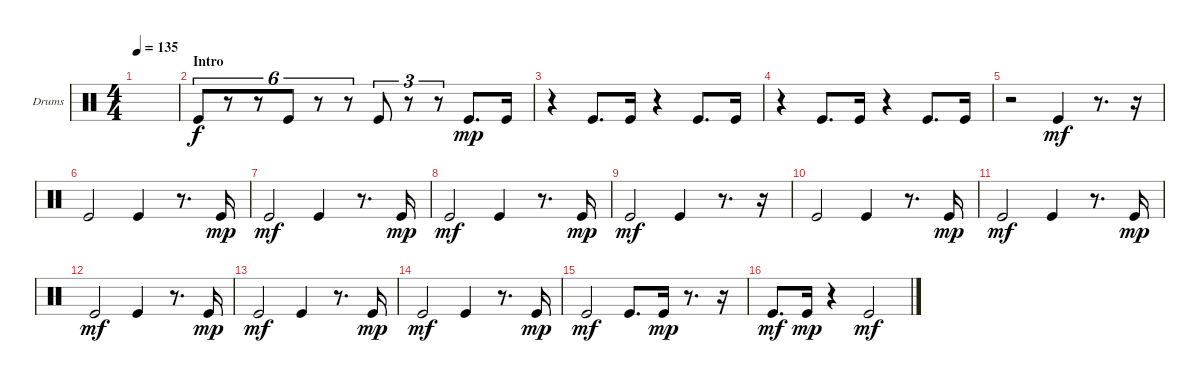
\bracketExtendMode groupsimilarinstruments
\firstSystemTrackNameOrientation horizontal
\otherSystemsTrackNameOrientation horizontal
\track ("Kick" "Drums") {instrument percussion}
\staff {score}
\articulation defaults
\ts (4 4)
\tempo 135
\clef neutral
\ks c
|
\section ("" "Intro")
"Kick (hit)".8{tu (6 4)} r.8{tu (6 4)} r.8{tu (6 4)} "Kick (hit)".8{tu (6 4)} r.8{tu (6 4)} r.8{tu (6 4)} "Kick (hit)".8{tu (3 2)} r.8{tu (3 2)} r.8{tu (3 2)} "Kick (hit)".8{d dy mp} "Kick (hit)".16 |
r.4 "Kick (hit)".8{d} "Kick (hit)".16 r.4 "Kick (hit)".8{d} "Kick (hit)".16 |
r.4 "Kick (hit)".8{d} "Kick (hit)".16 r.4 "Kick (hit)".8{d} "Kick (hit)".16 |
r.2 "Kick (hit)".4{dy mf} r.8{d} r.16 |
"Kick (hit)".2 "Kick (hit)".4 r.8{d} "Kick (hit)".16{dy mp} |
"Kick (hit)".2{dy mf} "Kick (hit)".4 r.8{d} "Kick (hit)".16{dy mp} |
"Kick (hit)".2{dy mf} "Kick (hit)".4 r.8{d} "Kick (hit)".16{dy mp} |
"Kick (hit)".2{dy mf} "Kick (hit)".4 r.8{d} r.16 |
"Kick (hit)".2 "Kick (hit)".4 r.8{d} "Kick (hit)".16{dy mp} |
"Kick (hit)".2{dy mf} "Kick (hit)".4 r.8{d} "Kick (hit)".16{dy mp} |
"Kick (hit)".2{dy mf} "Kick (hit)".4 r.8{d} "Kick (hit)".16{dy mp} |
"Kick (hit)".2{dy mf} "Kick (hit)".4 r.8{d} "Kick (hit)".16{dy mp} |
"Kick (hit)".2{dy mf} "Kick (hit)".4 r.8{d} "Kick (hit)".16{dy mp} |
"Kick (hit)".2{dy mf} "Kick (hit)".8{d} "Kick (hit)".16{dy mp} r.8{d} r.16 |
"Kick (hit)".8{d dy mf} "Kick (hit)".16{dy mp} r.4 "Kick (hit)".2{dy mf}
